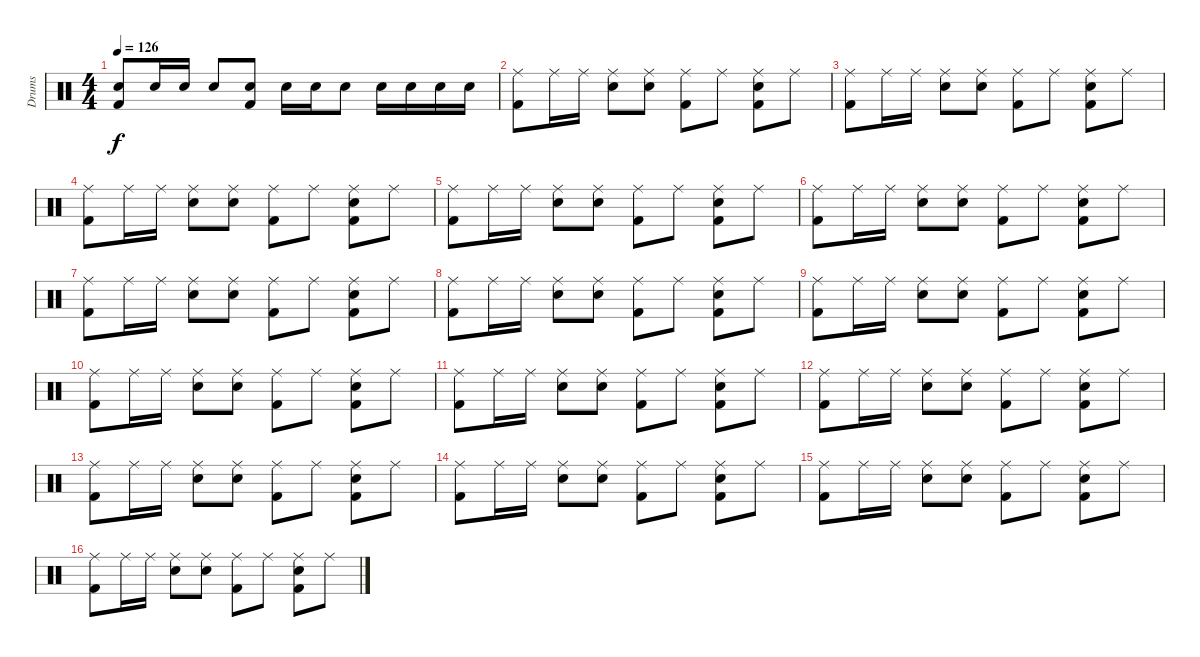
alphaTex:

\track ("Drums" "Drums") {instrument percussion}
\staff {score}
\articulation defaults
\ts (4 4)
\tempo 126
\clef neutral
\ks c
("Snare (hit) 2" "Kick (hit) 2").8{dy f} "Snare (hit) 2".16 "Snare (hit) 2".16 "Snare (hit) 2".8 ("Snare (hit) 2" "Kick (hit) 2").8 "Snare (hit) 2".16 "Snare (hit) 2".16 "Snare (hit) 2".8 "Snare (hit) 2".16 "Snare (hit) 2".16 "Snare (hit) 2".16 "Snare (hit) 2".16 |
("Ride (middle)" "Kick (hit) 2").8 "Ride (middle)".16 "Ride (middle)".16 ("Ride (middle)" "Snare (hit) 2").8 ("Ride (middle)" "Snare (hit) 2").8 ("Ride (middle)" "Kick (hit) 2").8 "Ride (middle)".8 ("Ride (middle)" "Snare (hit) 2" "Kick (hit) 2").8 "Ride (middle)".8 |
("Ride (middle)" "Kick (hit) 2").8 "Ride (middle)".16 "Ride (middle)".16 ("Ride (middle)" "Snare (hit) 2").8 ("Ride (middle)" "Snare (hit) 2").8 ("Ride (middle)" "Kick (hit) 2").8 "Ride (middle)".8 ("Ride (middle)" "Snare (hit) 2" "Kick (hit) 2").8 "Ride (middle)".8 |
("Ride (middle)" "Kick (hit) 2").8 "Ride (middle)".16 "Ride (middle)".16 ("Ride (middle)" "Snare (hit) 2").8 ("Ride (middle)" "Snare (hit) 2").8 ("Ride (middle)" "Kick (hit) 2").8 "Ride (middle)".8 ("Ride (middle)" "Snare (hit) 2" "Kick (hit) 2").8 "Ride (middle)".8 |
("Ride (middle)" "Kick (hit) 2").8 "Ride (middle)".16 "Ride (middle)".16 ("Ride (middle)" "Snare (hit) 2").8 ("Ride (middle)" "Snare (hit) 2").8 ("Ride (middle)" "Kick (hit) 2").8 "Ride (middle)".8 ("Ride (middle)" "Snare (hit) 2" "Kick (hit) 2").8 "Ride (middle)".8 |
("Ride (middle)" "Kick (hit) 2").8 "Ride (middle)".16 "Ride (middle)".16 ("Ride (middle)" "Snare (hit) 2").8 ("Ride (middle)" "Snare (hit) 2").8 ("Ride (middle)" "Kick (hit) 2").8 "Ride (middle)".8 ("Ride (middle)" "Snare (hit) 2" "Kick (hit) 2").8 "Ride (middle)".8 |
("Ride (middle)" "Kick (hit) 2").8 "Ride (middle)".16 "Ride (middle)".16 ("Ride (middle)" "Snare (hit) 2").8 ("Ride (middle)" "Snare (hit) 2").8 ("Ride (middle)" "Kick (hit) 2").8 "Ride (middle)".8 ("Ride (middle)" "Snare (hit) 2" "Kick (hit) 2").8 "Ride (middle)".8 |
("Ride (middle)" "Kick (hit) 2").8 "Ride (middle)".16 "Ride (middle)".16 ("Ride (middle)" "Snare (hit) 2").8 ("Ride (middle)" "Snare (hit) 2").8 ("Ride (middle)" "Kick (hit) 2").8 "Ride (middle)".8 ("Ride (middle)" "Snare (hit) 2" "Kick (hit) 2").8 "Ride (middle)".8 |
("Ride (middle)" "Kick (hit) 2").8 "Ride (middle)".16 "Ride (middle)".16 ("Ride (middle)" "Snare (hit) 2").8 ("Ride (middle)" "Snare (hit) 2").8 ("Ride (middle)" "Kick (hit) 2").8 "Ride (middle)".8 ("Ride (middle)" "Snare (hit) 2" "Kick (hit) 2").8 "Ride (middle)".8 |
("Ride (middle)" "Kick (hit) 2").8 "Ride (middle)".16 "Ride (middle)".16 ("Ride (middle)" "Snare (hit) 2").8 ("Ride (middle)" "Snare (hit) 2").8 ("Ride (middle)" "Kick (hit) 2").8 "Ride (middle)".8 ("Ride (middle)" "Snare (hit) 2" "Kick (hit) 2").8 "Ride (middle)".8 |
("Ride (middle)" "Kick (hit) 2").8 "Ride (middle)".16 "Ride (middle)".16 ("Ride (middle)" "Snare (hit) 2").8 ("Ride (middle)" "Snare (hit) 2").8 ("Ride (middle)" "Kick (hit) 2").8 "Ride (middle)".8 ("Ride (middle)" "Snare (hit) 2" "Kick (hit) 2").8 "Ride (middle)".8 |
("Ride (middle)" "Kick (hit) 2").8 "Ride (middle)".16 "Ride (middle)".16 ("Ride (middle)" "Snare (hit) 2").8 ("Ride (middle)" "Snare (hit) 2").8 ("Ride (middle)" "Kick (hit) 2").8 "Ride (middle)".8 ("Ride (middle)" "Snare (hit) 2" "Kick (hit) 2").8 "Ride (middle)".8 |
("Ride (middle)" "Kick (hit) 2").8 "Ride (middle)".16 "Ride (middle)".16 ("Ride (middle)" "Snare (hit) 2").8 ("Ride (middle)" "Snare (hit) 2").8 ("Ride (middle)" "Kick (hit) 2").8 "Ride (middle)".8 ("Ride (middle)" "Snare (hit) 2" "Kick (hit) 2").8 "Ride (middle)".8 |
("Ride (middle)" "Kick (hit) 2").8 "Ride (middle)".16 "Ride (middle)".16 ("Ride (middle)" "Snare (hit) 2").8 ("Ride (middle)" "Snare (hit) 2").8 ("Ride (middle)" "Kick (hit) 2").8 "Ride (middle)".8 ("Ride (middle)" "Snare (hit) 2" "Kick (hit) 2").8 "Ride (middle)".8 |
("Ride (middle)" "Kick (hit) 2").8 "Ride (middle)".16 "Ride (middle)".16 ("Ride (middle)" "Snare (hit) 2").8 ("Ride (middle)" "Snare (hit) 2").8 ("Ride (middle)" "Kick (hit) 2").8 "Ride (middle)".8 ("Ride (middle)" "Snare (hit) 2" "Kick (hit) 2").8 "Ride (middle)".8 |
("Ride (middle)" "Kick (hit) 2").8 "Ride (middle)".16 "Ride (middle)".16 ("Ride (middle)" "Snare (hit) 2").8 ("Ride (middle)" "Snare (hit) 2").8 ("Ride (middle)" "Kick (hit) 2").8 "Ride (middle)".8 ("Ride (middle)" "Snare (hit) 2" "Kick (hit) 2").8 "Ride (middle)".8
